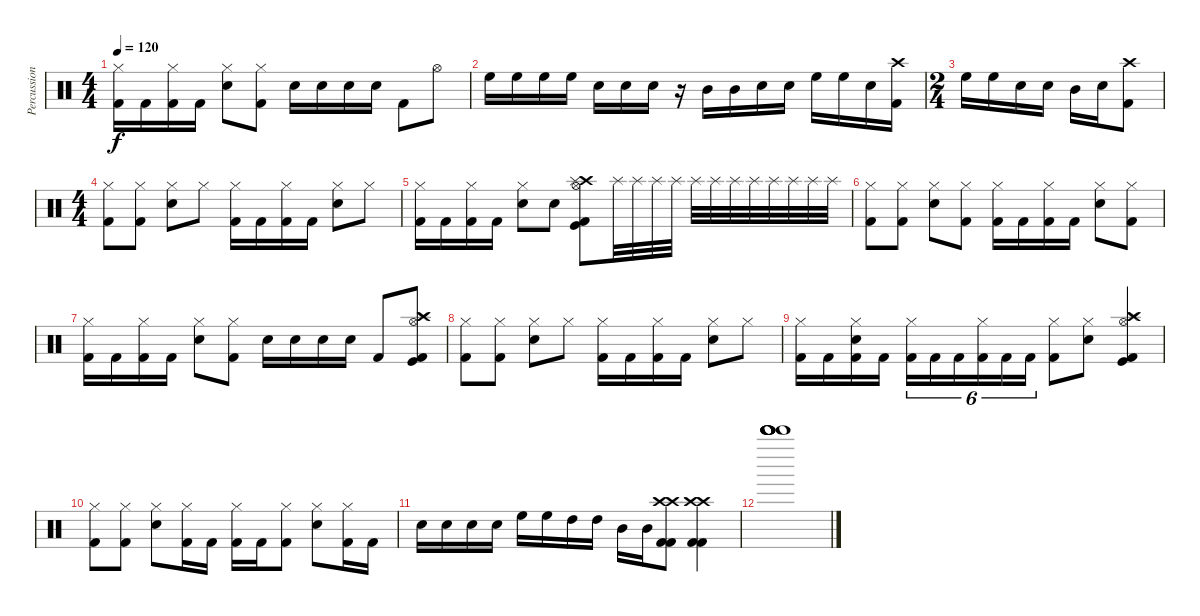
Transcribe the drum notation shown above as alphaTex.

\track ("Percussioni" "Percussion") {instrument percussion}
\staff {score}
\articulation defaults
\ts (4 4)
\tempo 120
\clef neutral
\ks c
("Hi-Hat (closed)" "Kick (hit) 2").16{dy f} "Kick (hit) 2".16 ("Hi-Hat (closed)" "Kick (hit) 2").16 "Kick (hit) 2".16 ("Hi-Hat (closed)" "Snare (hit) 2").8 ("Hi-Hat (closed)" "Kick (hit) 2").8 "Snare (hit) 2".16 "Snare (hit) 2".16 "Snare (hit) 2".16 "Snare (hit) 2".16 "Kick (hit) 2".8 "Hi-Hat (open)".8 |
"High Floor Tom (hit)".16 "High Floor Tom (hit)".16 "High Floor Tom (hit)".16 "High Floor Tom (hit)".16 "Snare (hit) 2".16 "Snare (hit) 2".16 "Snare (hit) 2".16 r.16 "Mid Tom (hit)".16 "Mid Tom (hit)".16 "Snare (hit) 2".16 "Snare (hit) 2".16 "High Floor Tom (hit)".16 "High Floor Tom (hit)".16 "Snare (hit) 2".16 ("Crash high (hit)" "Kick (hit) 2").16 |
\ts (2 4)
"High Floor Tom (hit)".16 "High Floor Tom (hit)".16 "Snare (hit) 2".16 "Snare (hit) 2".16 "Mid Tom (hit)".16 "Snare (hit) 2".16 ("Crash high (hit)" "Kick (hit) 2").8 |
\ts (4 4)
("Hi-Hat (closed)" "Kick (hit) 2").8 ("Hi-Hat (closed)" "Kick (hit) 2").8 ("Hi-Hat (closed)" "Snare (hit) 2").8 "Hi-Hat (closed)".8 ("Hi-Hat (closed)" "Kick (hit) 2").16 "Kick (hit) 2".16 ("Hi-Hat (closed)" "Kick (hit) 2").16 "Kick (hit) 2".16 ("Hi-Hat (closed)" "Snare (hit) 2").8 "Hi-Hat (closed)".8 |
("Hi-Hat (closed)" "Kick (hit) 2").16 "Kick (hit) 2".16 ("Hi-Hat (closed)" "Kick (hit) 2").16 "Kick (hit) 2".16 ("Hi-Hat (closed)" "Snare (hit) 2").8 "Snare (hit) 2".8 ("Crash high (hit)" "Splash (hit)" "Hi-Hat (open)" "Kick (hit) 2" "Kick (hit)").8 "Splash (hit)".32 "Splash (hit)".32 "Splash (hit)".32 "Splash (hit)".32 "Splash (hit)".32 "Splash (hit)".32 "Splash (hit)".32 "Splash (hit)".32 "Splash (hit)".32 "Splash (hit)".32 "Splash (hit)".32 "Splash (hit)".32 |
("Hi-Hat (closed)" "Kick (hit) 2").8 ("Hi-Hat (closed)" "Kick (hit) 2").8 ("Hi-Hat (closed)" "Snare (hit) 2").8 ("Hi-Hat (closed)" "Kick (hit) 2").8 ("Hi-Hat (closed)" "Kick (hit) 2").16 "Kick (hit) 2".16 ("Hi-Hat (closed)" "Kick (hit) 2").16 "Kick (hit) 2".16 ("Hi-Hat (closed)" "Snare (hit) 2").8 ("Hi-Hat (closed)" "Kick (hit) 2").8 |
("Hi-Hat (closed)" "Kick (hit) 2").16 "Kick (hit) 2".16 ("Hi-Hat (closed)" "Kick (hit) 2").16 "Kick (hit) 2".16 ("Hi-Hat (closed)" "Snare (hit) 2").8 ("Hi-Hat (closed)" "Kick (hit) 2").8 "Snare (hit) 2".16 "Snare (hit) 2".16 "Snare (hit) 2".16 "Snare (hit) 2".16 "Kick (hit) 2".8 ("Crash high (hit)" "Splash (hit)" "Hi-Hat (open)" "Kick (hit)" "Kick (hit) 2").8 |
("Hi-Hat (closed)" "Kick (hit) 2").8 ("Hi-Hat (closed)" "Kick (hit) 2").8 ("Hi-Hat (closed)" "Snare (hit) 2").8 "Hi-Hat (closed)".8 ("Hi-Hat (closed)" "Kick (hit) 2").16 "Kick (hit) 2".16 ("Hi-Hat (closed)" "Kick (hit) 2").16 "Kick (hit) 2".16 ("Hi-Hat (closed)" "Snare (hit) 2").8 "Hi-Hat (closed)".8 |
("Hi-Hat (closed)" "Kick (hit) 2").16 "Kick (hit) 2".16 ("Hi-Hat (closed)" "Snare (hit) 2" "Kick (hit) 2").16 "Kick (hit) 2".16 ("Hi-Hat (closed)" "Kick (hit) 2").16{tu (6 4)} "Kick (hit) 2".16{tu (6 4)} "Kick (hit) 2".16{tu (6 4)} ("Hi-Hat (closed)" "Kick (hit) 2").16{tu (6 4)} "Kick (hit) 2".16{tu (6 4)} "Kick (hit) 2".16{tu (6 4)} ("Hi-Hat (closed)" "Kick (hit) 2").8 ("Hi-Hat (closed)" "Snare (hit) 2").8 ("Crash high (hit)" "Splash (hit)" "Hi-Hat (open)" "Kick (hit) 2" "Kick (hit)").4 |
("Hi-Hat (closed)" "Kick (hit) 2").8 ("Hi-Hat (closed)" "Kick (hit) 2").8 ("Hi-Hat (closed)" "Snare (hit) 2").8 ("Hi-Hat (closed)" "Kick (hit) 2").16 "Kick (hit) 2".16 ("Hi-Hat (closed)" "Kick (hit) 2").16 "Kick (hit) 2".16 ("Hi-Hat (closed)" "Kick (hit) 2").8 ("Hi-Hat (closed)" "Snare (hit) 2").8 ("Hi-Hat (closed)" "Kick (hit) 2").16 "Kick (hit) 2".16 |
"Snare (hit) 2".16 "Snare (hit) 2".16 "Snare (hit) 2".16 "Snare (hit) 2".16 "High Floor Tom (hit)".16 "High Floor Tom (hit)".16 "High Tom (hit)".16 "High Tom (hit)".16 "Mid Tom (hit)".16 "Mid Tom (hit)".16 ("Crash high (hit)" "Crash high (hit)" "Kick (hit) 2" "Kick (hit) 2").8 ("Crash high (hit)" "Crash high (hit)" "Kick (hit) 2" "Kick (hit) 2").4 |
("Bell Tree (hit)" "Bell Tree (hit)" "Bell Tree (hit)" "Bell Tree (hit)" "Bell Tree (hit)" "Bell Tree (hit)").1
